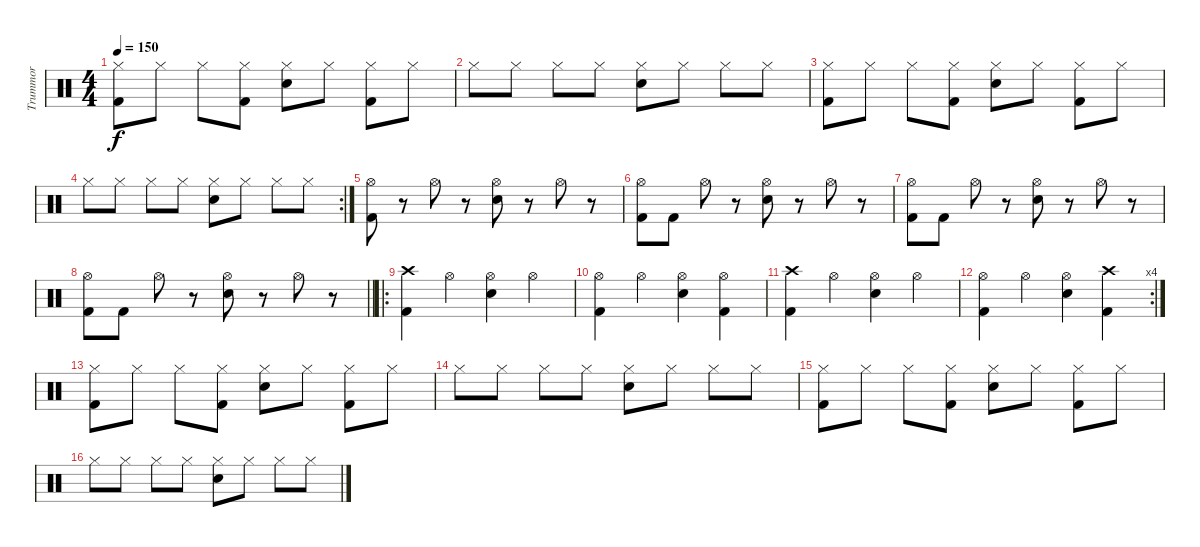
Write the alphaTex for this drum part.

\track ("Trummor" "Trummor") {instrument percussion}
\staff {score}
\articulation defaults
\ts (4 4)
\tempo 150
\clef neutral
\ks c
("Hi-Hat (closed)" "Kick (hit) 2").8{dy f} "Hi-Hat (closed)".8 "Hi-Hat (closed)".8 ("Hi-Hat (closed)" "Kick (hit) 2").8 ("Hi-Hat (closed)" "Snare (hit) 2").8 "Hi-Hat (closed)".8 ("Hi-Hat (closed)" "Kick (hit) 2").8 "Hi-Hat (closed)".8 |
"Hi-Hat (closed)".8 "Hi-Hat (closed)".8 "Hi-Hat (closed)".8 "Hi-Hat (closed)".8 ("Hi-Hat (closed)" "Snare (hit) 2").8 "Hi-Hat (closed)".8 "Hi-Hat (closed)".8 "Hi-Hat (closed)".8 |
("Hi-Hat (closed)" "Kick (hit) 2").8 "Hi-Hat (closed)".8 "Hi-Hat (closed)".8 ("Hi-Hat (closed)" "Kick (hit) 2").8 ("Hi-Hat (closed)" "Snare (hit) 2").8 "Hi-Hat (closed)".8 ("Hi-Hat (closed)" "Kick (hit) 2").8 "Hi-Hat (closed)".8 |
\rc 2 "Hi-Hat (closed)".8 "Hi-Hat (closed)".8 "Hi-Hat (closed)".8 "Hi-Hat (closed)".8
("Hi-Hat (closed)" "Snare (hit) 2").8 "Hi-Hat (closed)".8 "Hi-Hat (closed)".8 "Hi-Hat (closed)".8 |
("Hi-Hat (open)" "Kick (hit) 2").8 r.8 "Hi-Hat (open)".8 r.8 ("Hi-Hat (open)" "Snare (hit) 2").8 r.8 "Hi-Hat (open)".8 r.8 |
("Hi-Hat (open)" "Kick (hit) 2").8 "Kick (hit) 2".8 "Hi-Hat (open)".8 r.8 ("Hi-Hat (open)" "Snare (hit) 2").8 r.8 "Hi-Hat (open)".8 r.8 |
("Hi-Hat (open)" "Kick (hit) 2").8 "Kick (hit) 2".8 "Hi-Hat (open)".8 r.8 ("Hi-Hat (open)" "Snare (hit) 2").8 r.8 "Hi-Hat (open)".8 r.8 |
\barLineRight lightlight
("Hi-Hat (open)" "Kick (hit) 2").8 "Kick (hit) 2".8 "Hi-Hat (open)".8 r.8 ("Hi-Hat (open)" "Snare (hit) 2").8 r.8 "Hi-Hat (open)".8 r.8 |
\ro
("Crash high (hit)" "Kick (hit) 2").4 "Hi-Hat (open)".4 ("Hi-Hat (open)" "Snare (hit) 2").4 "Hi-Hat (open)".4 |
("Hi-Hat (open)" "Kick (hit) 2").4 "Hi-Hat (open)".4 ("Hi-Hat (open)" "Snare (hit) 2").4 ("Hi-Hat (open)" "Kick (hit) 2").4 |
("Crash high (hit)" "Kick (hit) 2").4 "Hi-Hat (open)".4 ("Hi-Hat (open)" "Snare (hit) 2").4 "Hi-Hat (open)".4 |
\rc 4
("Hi-Hat (open)" "Kick (hit) 2").4 "Hi-Hat (open)".4 ("Hi-Hat (open)" "Snare (hit) 2").4 ("Crash high (hit)" "Kick (hit) 2").4 |
("Hi-Hat (closed)" "Kick (hit) 2").8 "Hi-Hat (closed)".8 "Hi-Hat (closed)".8 ("Hi-Hat (closed)" "Kick (hit) 2").8 ("Hi-Hat (closed)" "Snare (hit) 2").8 "Hi-Hat (closed)".8 ("Hi-Hat (closed)" "Kick (hit) 2").8 "Hi-Hat (closed)".8 |
"Hi-Hat (closed)".8 "Hi-Hat (closed)".8 "Hi-Hat (closed)".8 "Hi-Hat (closed)".8 ("Hi-Hat (closed)" "Snare (hit) 2").8 "Hi-Hat (closed)".8 "Hi-Hat (closed)".8 "Hi-Hat (closed)".8 |
("Hi-Hat (closed)" "Kick (hit) 2").8 "Hi-Hat (closed)".8 "Hi-Hat (closed)".8 ("Hi-Hat (closed)" "Kick (hit) 2").8 ("Hi-Hat (closed)" "Snare (hit) 2").8 "Hi-Hat (closed)".8 ("Hi-Hat (closed)" "Kick (hit) 2").8 "Hi-Hat (closed)".8 |
"Hi-Hat (closed)".8 "Hi-Hat (closed)".8 "Hi-Hat (closed)".8 "Hi-Hat (closed)".8 ("Hi-Hat (closed)" "Snare (hit) 2").8 "Hi-Hat (closed)".8 "Hi-Hat (closed)".8 "Hi-Hat (closed)".8
